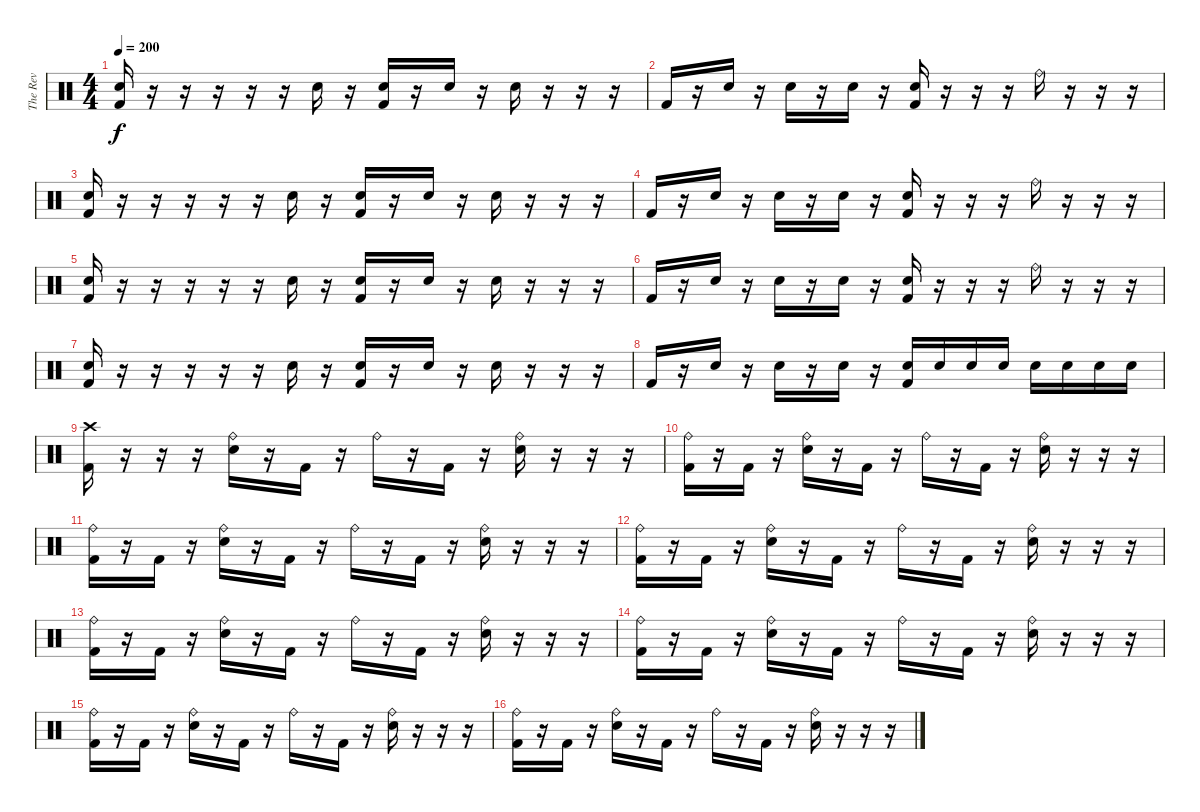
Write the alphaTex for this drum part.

\track ("The Rev" "The Rev") {instrument percussion}
\staff {score}
\articulation defaults
\ts (4 4)
\tempo 200
\clef neutral
\ks c
("Electric Snare (hit)" "Kick (hit) 2").16{dy f} r.16 r.16 r.16 r.16 r.16 "Electric Snare (hit)".16 r.16 ("Electric Snare (hit)" "Kick (hit) 2").16 r.16 "Electric Snare (hit)".16 r.16 "Electric Snare (hit)".16 r.16 r.16 r.16 |
"Kick (hit) 2".16 r.16 "Electric Snare (hit)".16 r.16 "Electric Snare (hit)".16 r.16 "Electric Snare (hit)".16 r.16 ("Electric Snare (hit)" "Kick (hit) 2").16 r.16 r.16 r.16 "Ride (bell)".16 r.16 r.16 r.16 |
("Electric Snare (hit)" "Kick (hit) 2").16 r.16 r.16 r.16 r.16 r.16 "Electric Snare (hit)".16 r.16 ("Electric Snare (hit)" "Kick (hit) 2").16 r.16 "Electric Snare (hit)".16 r.16 "Electric Snare (hit)".16 r.16 r.16 r.16 |
"Kick (hit) 2".16 r.16 "Electric Snare (hit)".16 r.16 "Electric Snare (hit)".16 r.16 "Electric Snare (hit)".16 r.16 ("Electric Snare (hit)" "Kick (hit) 2").16 r.16 r.16 r.16 "Ride (bell)".16 r.16 r.16 r.16 |
("Electric Snare (hit)" "Kick (hit) 2").16 r.16 r.16 r.16 r.16 r.16 "Electric Snare (hit)".16 r.16 ("Electric Snare (hit)" "Kick (hit) 2").16 r.16 "Electric Snare (hit)".16 r.16 "Electric Snare (hit)".16 r.16 r.16 r.16 |
"Kick (hit) 2".16 r.16 "Electric Snare (hit)".16 r.16 "Electric Snare (hit)".16 r.16 "Electric Snare (hit)".16 r.16 ("Electric Snare (hit)" "Kick (hit) 2").16 r.16 r.16 r.16 "Ride (bell)".16 r.16 r.16 r.16 |
("Electric Snare (hit)" "Kick (hit) 2").16 r.16 r.16 r.16 r.16 r.16 "Electric Snare (hit)".16 r.16 ("Electric Snare (hit)" "Kick (hit) 2").16 r.16 "Electric Snare (hit)".16 r.16 "Electric Snare (hit)".16 r.16 r.16 r.16 |
"Kick (hit) 2".16 r.16 "Electric Snare (hit)".16 r.16 "Electric Snare (hit)".16 r.16 "Electric Snare (hit)".16 r.16 ("Electric Snare (hit)" "Kick (hit) 2").16 "Electric Snare (hit)".16 "Electric Snare (hit)".16 "Electric Snare (hit)".16 "Electric Snare (hit)".16 "Electric Snare (hit)".16 "Electric Snare (hit)".16 "Electric Snare (hit)".16 |
("Crash high (hit)" "Kick (hit) 2").16 r.16 r.16 r.16 ("Ride (bell)" "Electric Snare (hit)").16 r.16 "Kick (hit) 2".16 r.16 "Ride (bell)".16 r.16 "Kick (hit) 2".16 r.16 ("Ride (bell)" "Electric Snare (hit)").16 r.16 r.16 r.16 |
("Ride (bell)" "Kick (hit) 2").16 r.16 "Kick (hit) 2".16 r.16 ("Ride (bell)" "Electric Snare (hit)").16 r.16 "Kick (hit) 2".16 r.16 "Ride (bell)".16 r.16 "Kick (hit) 2".16 r.16 ("Ride (bell)" "Electric Snare (hit)").16 r.16 r.16 r.16 |
("Ride (bell)" "Kick (hit) 2").16 r.16 "Kick (hit) 2".16 r.16 ("Ride (bell)" "Electric Snare (hit)").16 r.16 "Kick (hit) 2".16 r.16 "Ride (bell)".16 r.16 "Kick (hit) 2".16 r.16 ("Ride (bell)" "Electric Snare (hit)").16 r.16 r.16 r.16 |
("Ride (bell)" "Kick (hit) 2").16 r.16 "Kick (hit) 2".16 r.16 ("Ride (bell)" "Electric Snare (hit)").16 r.16 "Kick (hit) 2".16 r.16 "Ride (bell)".16 r.16 "Kick (hit) 2".16 r.16 ("Ride (bell)" "Electric Snare (hit)").16 r.16 r.16 r.16 |
("Ride (bell)" "Kick (hit) 2").16 r.16 "Kick (hit) 2".16 r.16 ("Ride (bell)" "Electric Snare (hit)").16 r.16 "Kick (hit) 2".16 r.16 "Ride (bell)".16 r.16 "Kick (hit) 2".16 r.16 ("Ride (bell)" "Electric Snare (hit)").16 r.16 r.16 r.16 |
("Ride (bell)" "Kick (hit) 2").16 r.16 "Kick (hit) 2".16 r.16 ("Ride (bell)" "Electric Snare (hit)").16 r.16 "Kick (hit) 2".16 r.16 "Ride (bell)".16 r.16 "Kick (hit) 2".16 r.16 ("Ride (bell)" "Electric Snare (hit)").16 r.16 r.16 r.16 |
("Ride (bell)" "Kick (hit) 2").16 r.16 "Kick (hit) 2".16 r.16 ("Ride (bell)" "Electric Snare (hit)").16 r.16 "Kick (hit) 2".16 r.16 "Ride (bell)".16 r.16 "Kick (hit) 2".16 r.16 ("Ride (bell)" "Electric Snare (hit)").16 r.16 r.16 r.16 |
("Ride (bell)" "Kick (hit) 2").16 r.16 "Kick (hit) 2".16 r.16 ("Ride (bell)" "Electric Snare (hit)").16 r.16 "Kick (hit) 2".16 r.16 "Ride (bell)".16 r.16 "Kick (hit) 2".16 r.16 ("Ride (bell)" "Electric Snare (hit)").16 r.16 r.16 r.16
